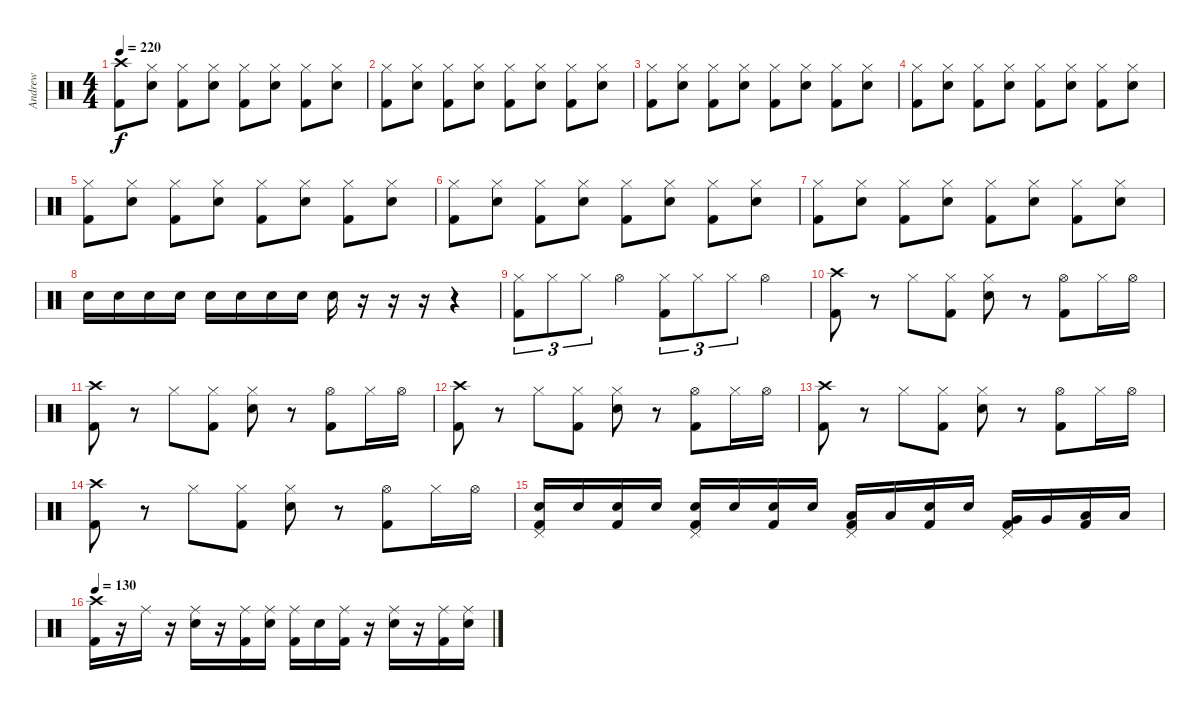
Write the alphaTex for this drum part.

\track ("Andrew" "Andrew") {instrument percussion}
\staff {score}
\articulation defaults
\ts (4 4)
\tempo 220
\clef neutral
\ks c
("Kick (hit) 2" "Crash high (hit)").8{dy f} ("Hi-Hat (closed)" "Snare (hit) 2").8 ("Hi-Hat (closed)" "Kick (hit) 2").8 ("Hi-Hat (closed)" "Snare (hit) 2").8 ("Hi-Hat (closed)" "Kick (hit) 2").8 ("Hi-Hat (closed)" "Snare (hit) 2").8 ("Hi-Hat (closed)" "Kick (hit) 2").8 ("Hi-Hat (closed)" "Snare (hit) 2").8 |
("Hi-Hat (closed)" "Kick (hit) 2").8 ("Hi-Hat (closed)" "Snare (hit) 2").8 ("Hi-Hat (closed)" "Kick (hit) 2").8 ("Hi-Hat (closed)" "Snare (hit) 2").8 ("Hi-Hat (closed)" "Kick (hit) 2").8 ("Hi-Hat (closed)" "Snare (hit) 2").8 ("Hi-Hat (closed)" "Kick (hit) 2").8 ("Hi-Hat (closed)" "Snare (hit) 2").8 |
("Hi-Hat (closed)" "Kick (hit) 2").8 ("Hi-Hat (closed)" "Snare (hit) 2").8 ("Hi-Hat (closed)" "Kick (hit) 2").8 ("Hi-Hat (closed)" "Snare (hit) 2").8 ("Hi-Hat (closed)" "Kick (hit) 2").8 ("Hi-Hat (closed)" "Snare (hit) 2").8 ("Hi-Hat (closed)" "Kick (hit) 2").8 ("Hi-Hat (closed)" "Snare (hit) 2").8 |
("Hi-Hat (closed)" "Kick (hit) 2").8 ("Hi-Hat (closed)" "Snare (hit) 2").8 ("Hi-Hat (closed)" "Kick (hit) 2").8 ("Hi-Hat (closed)" "Snare (hit) 2").8 ("Hi-Hat (closed)" "Kick (hit) 2").8 ("Hi-Hat (closed)" "Snare (hit) 2").8 ("Hi-Hat (closed)" "Kick (hit) 2").8 ("Hi-Hat (closed)" "Snare (hit) 2").8 |
("Hi-Hat (closed)" "Kick (hit) 2").8 ("Hi-Hat (closed)" "Snare (hit) 2").8 ("Hi-Hat (closed)" "Kick (hit) 2").8 ("Hi-Hat (closed)" "Snare (hit) 2").8 ("Hi-Hat (closed)" "Kick (hit) 2").8 ("Hi-Hat (closed)" "Snare (hit) 2").8 ("Hi-Hat (closed)" "Kick (hit) 2").8 ("Hi-Hat (closed)" "Snare (hit) 2").8 |
("Hi-Hat (closed)" "Kick (hit) 2").8 ("Hi-Hat (closed)" "Snare (hit) 2").8 ("Hi-Hat (closed)" "Kick (hit) 2").8 ("Hi-Hat (closed)" "Snare (hit) 2").8 ("Hi-Hat (closed)" "Kick (hit) 2").8 ("Hi-Hat (closed)" "Snare (hit) 2").8 ("Hi-Hat (closed)" "Kick (hit) 2").8 ("Hi-Hat (closed)" "Snare (hit) 2").8 |
("Hi-Hat (closed)" "Kick (hit) 2").8 ("Hi-Hat (closed)" "Snare (hit) 2").8 ("Hi-Hat (closed)" "Kick (hit) 2").8 ("Hi-Hat (closed)" "Snare (hit) 2").8 ("Hi-Hat (closed)" "Kick (hit) 2").8 ("Hi-Hat (closed)" "Snare (hit) 2").8 ("Hi-Hat (closed)" "Kick (hit) 2").8 ("Hi-Hat (closed)" "Snare (hit) 2").8 |
"Snare (hit) 2".16 "Snare (hit) 2".16 "Snare (hit) 2".16 "Snare (hit) 2".16 "Snare (hit) 2".16 "Snare (hit) 2".16 "Snare (hit) 2".16 "Snare (hit) 2".16 "Snare (hit) 2".16 r.16 r.16 r.16 r.4 |
("Hi-Hat (closed)" "Kick (hit) 2").8{tu (3 2)} "Hi-Hat (closed)".8{tu (3 2)} "Hi-Hat (closed)".8{tu (3 2)} "Hi-Hat (open)".4 ("Hi-Hat (closed)" "Kick (hit) 2").8{tu (3 2)} "Hi-Hat (closed)".8{tu (3 2)} "Hi-Hat (closed)".8{tu (3 2)} "Hi-Hat (open)".4 |
("Kick (hit) 2" "Crash high (hit)").8 r.8 "Hi-Hat (closed)".8 ("Hi-Hat (closed)" "Kick (hit) 2").8 ("Hi-Hat (closed)" "Snare (hit) 2").8 r.8 ("Hi-Hat (open)" "Kick (hit) 2").8 "Hi-Hat (closed)".16 "Hi-Hat (open)".16 |
("Kick (hit) 2" "Crash high (hit)").8 r.8 "Hi-Hat (closed)".8 ("Hi-Hat (closed)" "Kick (hit) 2").8 ("Hi-Hat (closed)" "Snare (hit) 2").8 r.8 ("Hi-Hat (open)" "Kick (hit) 2").8 "Hi-Hat (closed)".16 "Hi-Hat (open)".16 |
("Kick (hit) 2" "Crash high (hit)").8 r.8 "Hi-Hat (closed)".8 ("Hi-Hat (closed)" "Kick (hit) 2").8 ("Hi-Hat (closed)" "Snare (hit) 2").8 r.8 ("Hi-Hat (open)" "Kick (hit) 2").8 "Hi-Hat (closed)".16 "Hi-Hat (open)".16 |
("Kick (hit) 2" "Crash high (hit)").8 r.8 "Hi-Hat (closed)".8 ("Hi-Hat (closed)" "Kick (hit) 2").8 ("Hi-Hat (closed)" "Snare (hit) 2").8 r.8 ("Hi-Hat (open)" "Kick (hit) 2").8 "Hi-Hat (closed)".16 "Hi-Hat (open)".16 |
("Kick (hit) 2" "Crash high (hit)").8 r.8 "Hi-Hat (closed)".8 ("Hi-Hat (closed)" "Kick (hit) 2").8 ("Hi-Hat (closed)" "Snare (hit) 2").8 r.8 ("Hi-Hat (open)" "Kick (hit) 2").8 "Hi-Hat (closed)".16 "Hi-Hat (open)".16 |
("Kick (hit) 2" "Pedal Hi-Hat (hit)" "Electric Snare (hit)").16 "Electric Snare (hit)".16 ("Kick (hit) 2" "Electric Snare (hit)").16 "Electric Snare (hit)".16 ("Kick (hit) 2" "Pedal Hi-Hat (hit)" "Electric Snare (hit)").16 "Electric Snare (hit)".16 ("Kick (hit) 2" "Electric Snare (hit)").16 "Electric Snare (hit)".16 ("Kick (hit) 2" "Pedal Hi-Hat (hit)" "Low Tom (hit)").16 "Low Tom (hit)".16 ("Kick (hit) 2" "Electric Snare (hit)").16 "Electric Snare (hit)".16 ("Kick (hit) 2" "Pedal Hi-Hat (hit)" "Very Low Tom (hit)").16 "Very Low Tom (hit)".16 ("Kick (hit) 2" "Low Floor Tom (hit)").16 "Low Floor Tom (hit)".16 |
\tempo 130
("Kick (hit) 2" "Crash high (hit)").16 r.16 "Ride (middle)".16 r.16 ("Ride (middle)" "Snare (hit) 2").16 r.16 ("Ride (middle)" "Kick (hit) 2").16 ("Ride (middle)" "Snare (hit) 2").16 ("Ride (middle)" "Kick (hit) 2").16 "Snare (hit) 2".16 ("Ride (middle)" "Kick (hit) 2").16 r.16 ("Ride (middle)" "Snare (hit) 2").16 r.16 ("Ride (middle)" "Kick (hit) 2").16 ("Ride (middle)" "Snare (hit) 2").16
